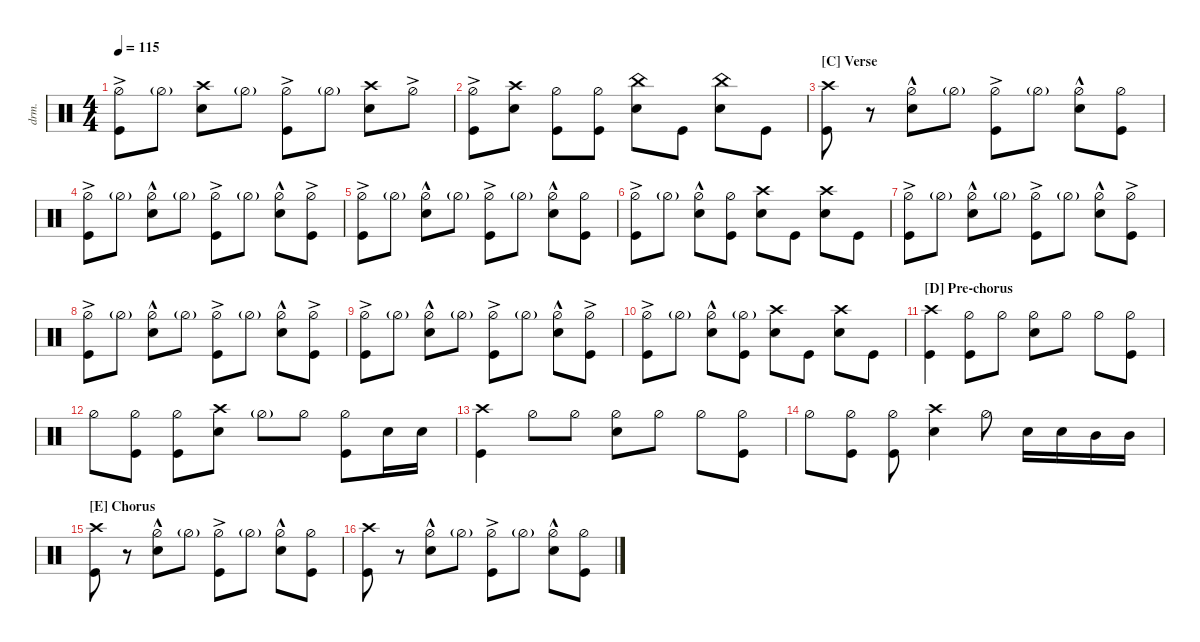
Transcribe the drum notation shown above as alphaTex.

\defaultSystemsLayout 4
\hideDynamics
\bracketExtendMode nobrackets
\otherSystemsTrackNameOrientation horizontal
\track ("Drums" "drm.") {multiBarRest instrument percussion}
\staff
\articulation defaults
\ts (4 4)
\tempo 115
\clef neutral
\ks c
("Kick (hit)" "Hi-Hat (half)"{ac}).8{dy f} "Hi-Hat (half)"{g}.8 ("Snare (hit) 2" "Crash high (hit)").8 "Hi-Hat (half)"{g}.8 ("Kick (hit)" "Hi-Hat (half)"{ac}).8 "Hi-Hat (half)"{g}.8 ("Snare (hit) 2" "Crash high (hit)").8 "Hi-Hat (half)"{ac}.8 |
("Kick (hit)" "Hi-Hat (half)"{ac}).8 ("Crash high (hit)" "Snare (hit) 2").8 ("Kick (hit)" "Hi-Hat (half)").8 ("Hi-Hat (half)" "Kick (hit)").8 ("Snare (hit) 2" "China (hit)").8 "Kick (hit)".8 ("Snare (hit) 2" "China (hit)").8 "Kick (hit)".8 |
\section ("C" "Verse")
("Kick (hit)" "Crash high (hit)").8 r.8 ("Hi-Hat (half)"{hac} "Snare (hit) 2").8 "Hi-Hat (half)"{g}.8 ("Kick (hit)" "Hi-Hat (half)"{ac}).8 "Hi-Hat (half)"{g}.8 ("Hi-Hat (half)"{hac} "Snare (hit) 2").8 ("Hi-Hat (half)" "Kick (hit)").8 |
("Kick (hit)" "Hi-Hat (half)"{ac}).8 "Hi-Hat (half)"{g}.8 ("Hi-Hat (half)"{hac} "Snare (hit) 2").8 "Hi-Hat (half)"{g}.8 ("Kick (hit)" "Hi-Hat (half)"{ac}).8 "Hi-Hat (half)"{g}.8 ("Hi-Hat (half)"{hac} "Snare (hit) 2").8 ("Hi-Hat (half)"{ac} "Kick (hit)").8 |
("Kick (hit)" "Hi-Hat (half)"{ac}).8 "Hi-Hat (half)"{g}.8 ("Hi-Hat (half)"{hac} "Snare (hit) 2").8 "Hi-Hat (half)"{g}.8 ("Kick (hit)" "Hi-Hat (half)"{ac}).8 "Hi-Hat (half)"{g}.8 ("Hi-Hat (half)"{hac} "Snare (hit) 2").8 ("Hi-Hat (half)" "Kick (hit)").8 |
("Kick (hit)" "Hi-Hat (half)"{ac}).8 "Hi-Hat (half)"{g}.8 ("Hi-Hat (half)"{hac} "Snare (hit) 2").8 ("Hi-Hat (half)" "Kick (hit)").8 ("Snare (hit) 2" "Crash high (hit)").8 "Kick (hit)".8 ("Snare (hit) 2" "Crash high (hit)").8 "Kick (hit)".8 |
("Kick (hit)" "Hi-Hat (half)"{ac}).8 "Hi-Hat (half)"{g}.8 ("Hi-Hat (half)"{hac} "Snare (hit) 2").8 "Hi-Hat (half)"{g}.8 ("Kick (hit)" "Hi-Hat (half)"{ac}).8 "Hi-Hat (half)"{g}.8 ("Hi-Hat (half)"{hac} "Snare (hit) 2").8 ("Hi-Hat (half)"{ac} "Kick (hit)").8 |
("Kick (hit)" "Hi-Hat (half)"{ac}).8 "Hi-Hat (half)"{g}.8 ("Hi-Hat (half)"{hac} "Snare (hit) 2").8 "Hi-Hat (half)"{g}.8 ("Kick (hit)" "Hi-Hat (half)"{ac}).8 "Hi-Hat (half)"{g}.8 ("Hi-Hat (half)"{hac} "Snare (hit) 2").8 ("Hi-Hat (half)"{ac} "Kick (hit)").8 |
("Kick (hit)" "Hi-Hat (half)"{ac}).8 "Hi-Hat (half)"{g}.8 ("Hi-Hat (half)"{hac} "Snare (hit) 2").8 "Hi-Hat (half)"{g}.8 ("Kick (hit)" "Hi-Hat (half)"{ac}).8 "Hi-Hat (half)"{g}.8 ("Hi-Hat (half)"{hac} "Snare (hit) 2").8 ("Hi-Hat (half)"{ac} "Kick (hit)").8 |
("Kick (hit)" "Hi-Hat (half)"{ac}).8 "Hi-Hat (half)"{g}.8 ("Hi-Hat (half)"{hac} "Snare (hit) 2").8 ("Hi-Hat (half)"{g} "Kick (hit)").8 ("Snare (hit) 2" "Crash high (hit)").8 "Kick (hit)".8 ("Snare (hit) 2" "Crash high (hit)").8 "Kick (hit)".8 |
\section ("D" "Pre-chorus")
("Kick (hit)" "Crash high (hit)").4 ("Kick (hit)" "Hi-Hat (half)").8 "Hi-Hat (half)".8 ("Hi-Hat (half)" "Snare (hit) 2").8 "Hi-Hat (half)".8 "Hi-Hat (half)".8 ("Kick (hit)" "Hi-Hat (half)").8 |
"Hi-Hat (half)".8 ("Hi-Hat (half)" "Kick (hit)").8 ("Hi-Hat (half)" "Kick (hit)").8 ("Snare (hit) 2" "Crash high (hit)").8 "Hi-Hat (half)"{g}.8 "Hi-Hat (half)".8 ("Hi-Hat (half)" "Kick (hit)").8 "Snare (hit) 2".16 "Snare (hit) 2".16 |
("Kick (hit)" "Crash high (hit)").4 "Hi-Hat (half)".8 "Hi-Hat (half)".8 ("Hi-Hat (half)" "Snare (hit) 2").8 "Hi-Hat (half)".8 "Hi-Hat (half)".8 ("Kick (hit)" "Hi-Hat (half)").8 |
"Hi-Hat (half)".8 ("Hi-Hat (half)" "Kick (hit)").8 ("Hi-Hat (half)" "Kick (hit)").8 ("Snare (hit) 2" "Crash high (hit)").4 "Hi-Hat (half)".8 "Snare (hit) 2".16 "Snare (hit) 2".16 "Mid Tom (hit)".16{dy ff} "Mid Tom (hit)".16 |
\section ("E" "Chorus")
("Kick (hit)" "Crash high (hit)").8{dy f} r.8 ("Hi-Hat (half)"{hac} "Snare (hit) 2").8 "Hi-Hat (half)"{g}.8 ("Kick (hit)" "Hi-Hat (half)"{ac}).8 "Hi-Hat (half)"{g}.8 ("Hi-Hat (half)"{hac} "Snare (hit) 2").8 ("Hi-Hat (half)" "Kick (hit)").8 |
("Kick (hit)" "Crash high (hit)").8 r.8 ("Hi-Hat (half)"{hac} "Snare (hit) 2").8 "Hi-Hat (half)"{g}.8 ("Kick (hit)" "Hi-Hat (half)"{ac}).8 "Hi-Hat (half)"{g}.8 ("Hi-Hat (half)"{hac} "Snare (hit) 2").8 ("Hi-Hat (half)" "Kick (hit)").8
